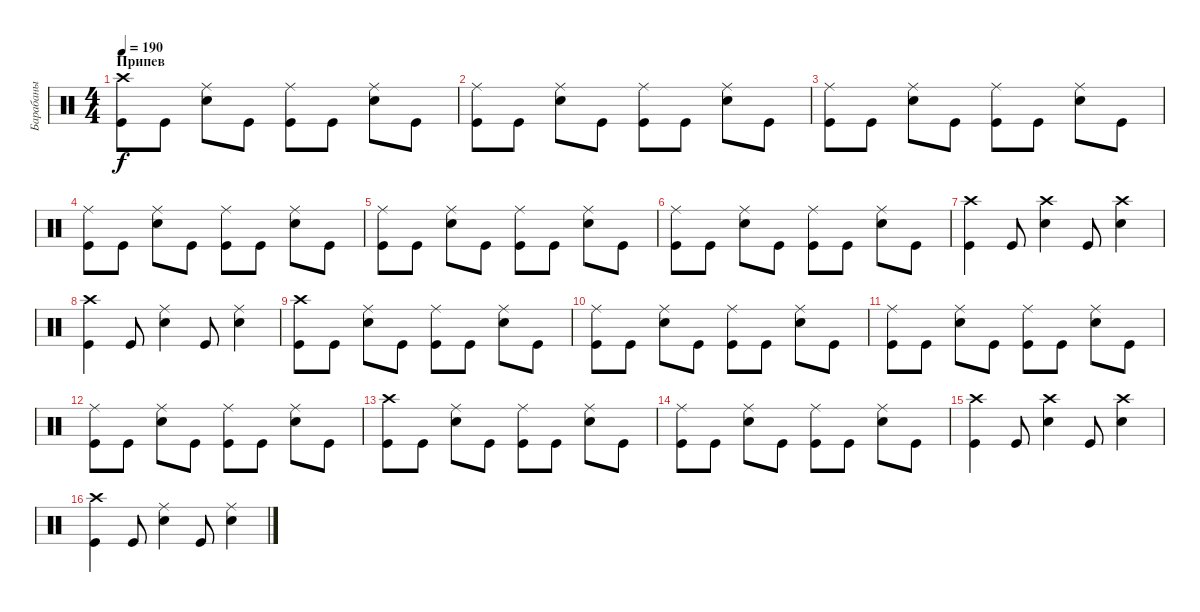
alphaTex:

\track ("Барабаны" "Барабаны") {instrument percussion}
\staff {score}
\articulation defaults
\ts (4 4)
\section ("" "Припев")
\tempo 190
\clef neutral
\ks c
("Kick (hit)" "Crash high (hit)").8{dy f} "Kick (hit)".8 ("Snare (hit) 2" "Ride (middle)").8 "Kick (hit)".8 ("Kick (hit)" "Ride (middle)").8 "Kick (hit)".8 ("Snare (hit) 2" "Ride (middle)").8 "Kick (hit)".8 |
("Kick (hit)" "Ride (middle)").8 "Kick (hit)".8 ("Snare (hit) 2" "Ride (middle)").8 "Kick (hit)".8 ("Kick (hit)" "Ride (middle)").8 "Kick (hit)".8 ("Snare (hit) 2" "Ride (middle)").8 "Kick (hit)".8 |
("Kick (hit)" "Ride (middle)").8 "Kick (hit)".8 ("Snare (hit) 2" "Ride (middle)").8 "Kick (hit)".8 ("Kick (hit)" "Ride (middle)").8 "Kick (hit)".8 ("Snare (hit) 2" "Ride (middle)").8 "Kick (hit)".8 |
("Kick (hit)" "Ride (middle)").8 "Kick (hit)".8 ("Snare (hit) 2" "Ride (middle)").8 "Kick (hit)".8 ("Kick (hit)" "Ride (middle)").8 "Kick (hit)".8 ("Snare (hit) 2" "Ride (middle)").8 "Kick (hit)".8 |
("Kick (hit)" "Ride (middle)").8 "Kick (hit)".8 ("Snare (hit) 2" "Ride (middle)").8 "Kick (hit)".8 ("Kick (hit)" "Ride (middle)").8 "Kick (hit)".8 ("Snare (hit) 2" "Ride (middle)").8 "Kick (hit)".8 |
("Kick (hit)" "Ride (middle)").8 "Kick (hit)".8 ("Snare (hit) 2" "Ride (middle)").8 "Kick (hit)".8 ("Kick (hit)" "Ride (middle)").8 "Kick (hit)".8 ("Snare (hit) 2" "Ride (middle)").8 "Kick (hit)".8 |
("Kick (hit)" "Crash high (hit)").4 "Kick (hit)".8 ("Snare (hit) 2" "Crash high (hit)").4 "Kick (hit)".8 ("Snare (hit) 2" "Crash high (hit)").4 |
("Kick (hit)" "Crash high (hit)").4 "Kick (hit)".8 ("Snare (hit) 2" "Ride (middle)").4 "Kick (hit)".8 ("Snare (hit) 2" "Ride (middle)").4 |
("Kick (hit)" "Crash high (hit)").8 "Kick (hit)".8 ("Snare (hit) 2" "Ride (middle)").8 "Kick (hit)".8 ("Kick (hit)" "Ride (middle)").8 "Kick (hit)".8 ("Snare (hit) 2" "Ride (middle)").8 "Kick (hit)".8 |
("Kick (hit)" "Ride (middle)").8 "Kick (hit)".8 ("Snare (hit) 2" "Ride (middle)").8 "Kick (hit)".8 ("Kick (hit)" "Ride (middle)").8 "Kick (hit)".8 ("Snare (hit) 2" "Ride (middle)").8 "Kick (hit)".8 |
("Kick (hit)" "Ride (middle)").8 "Kick (hit)".8 ("Snare (hit) 2" "Ride (middle)").8 "Kick (hit)".8 ("Kick (hit)" "Ride (middle)").8 "Kick (hit)".8 ("Snare (hit) 2" "Ride (middle)").8 "Kick (hit)".8 |
("Kick (hit)" "Ride (middle)").8 "Kick (hit)".8 ("Snare (hit) 2" "Ride (middle)").8 "Kick (hit)".8 ("Kick (hit)" "Ride (middle)").8 "Kick (hit)".8 ("Snare (hit) 2" "Ride (middle)").8 "Kick (hit)".8 |
("Kick (hit)" "Crash high (hit)").8 "Kick (hit)".8 ("Snare (hit) 2" "Ride (middle)").8 "Kick (hit)".8 ("Kick (hit)" "Ride (middle)").8 "Kick (hit)".8 ("Snare (hit) 2" "Ride (middle)").8 "Kick (hit)".8 |
("Kick (hit)" "Ride (middle)").8 "Kick (hit)".8 ("Snare (hit) 2" "Ride (middle)").8 "Kick (hit)".8 ("Kick (hit)" "Ride (middle)").8 "Kick (hit)".8 ("Snare (hit) 2" "Ride (middle)").8 "Kick (hit)".8 |
("Kick (hit)" "Crash high (hit)").4 "Kick (hit)".8 ("Snare (hit) 2" "Crash high (hit)").4 "Kick (hit)".8 ("Snare (hit) 2" "Crash high (hit)").4 |
("Kick (hit)" "Crash high (hit)").4 "Kick (hit)".8 ("Snare (hit) 2" "Ride (middle)").4 "Kick (hit)".8 ("Snare (hit) 2" "Ride (middle)").4
